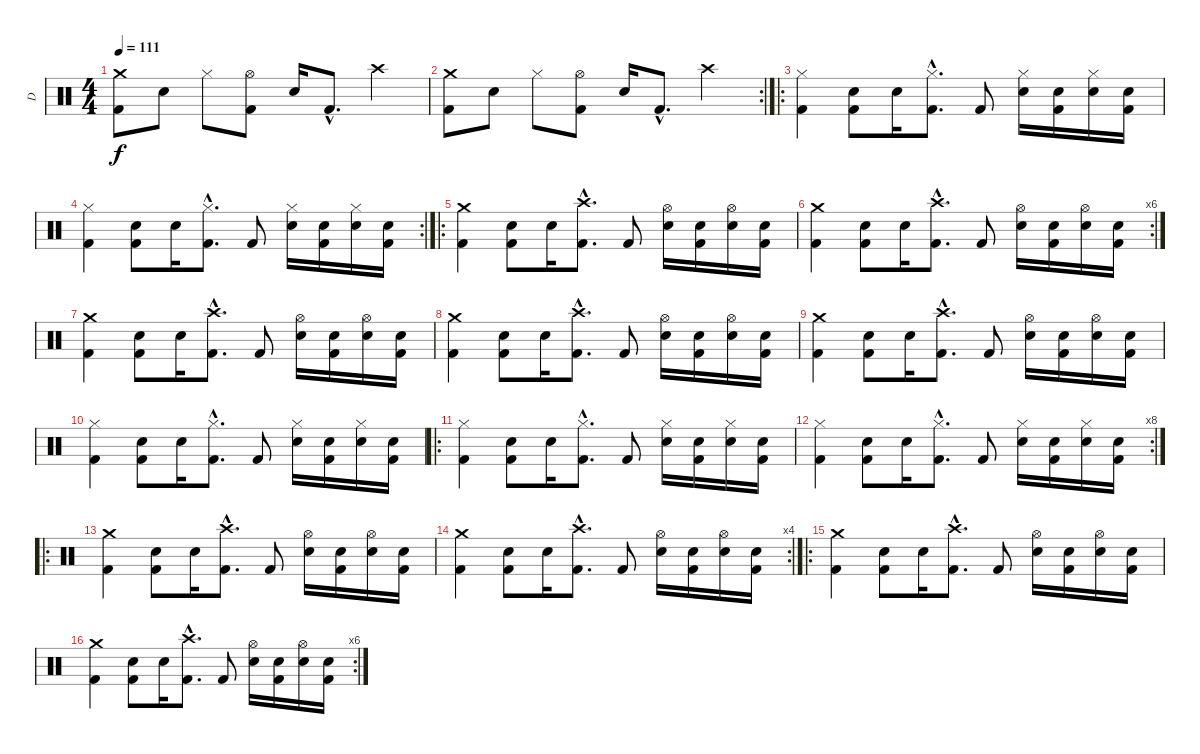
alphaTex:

\track ("D" "D") {instrument percussion}
\staff {score}
\articulation defaults
\ts (4 4)
\tempo 111
\clef neutral
\ks c
("Crash medium (hit)" "Kick (hit) 2").8{dy f} "Electric Snare (hit)".8 "Hi-Hat (closed)".8 ("Hi-Hat (open)" "Kick (hit) 2").8 "Electric Snare (hit)".16 "Kick (hit) 2"{hac}.8{d} "Crash high (hit)".4 |
\rc 2
("Crash medium (hit)" "Kick (hit) 2").8 "Electric Snare (hit)".8 "Hi-Hat (closed)".8 ("Hi-Hat (open)" "Kick (hit) 2").8 "Electric Snare (hit)".16 "Kick (hit) 2"{hac}.8{d} "Crash high (hit)".4 |
\ro
("Hi-Hat (closed)" "Kick (hit) 2").4 ("Electric Snare (hit)" "Kick (hit) 2").8 "Electric Snare (hit)".16 ("Hi-Hat (closed)"{hac} "Kick (hit) 2"{hac}).8{d} "Kick (hit) 2".8 ("Hi-Hat (closed)" "Electric Snare (hit)").16 ("Electric Snare (hit)" "Kick (hit) 2").16 ("Hi-Hat (closed)" "Electric Snare (hit)").16 ("Electric Snare (hit)" "Kick (hit) 2").16 |
\rc 2
("Hi-Hat (closed)" "Kick (hit) 2").4 ("Electric Snare (hit)" "Kick (hit) 2").8 "Electric Snare (hit)".16 ("Hi-Hat (closed)"{hac} "Kick (hit) 2"{hac}).8{d} "Kick (hit) 2".8 ("Hi-Hat (closed)" "Electric Snare (hit)").16 ("Electric Snare (hit)" "Kick (hit) 2").16 ("Hi-Hat (closed)" "Electric Snare (hit)").16 ("Electric Snare (hit)" "Kick (hit) 2").16 |
\ro
("Crash medium (hit)" "Kick (hit) 2").4 ("Electric Snare (hit)" "Kick (hit) 2").8 "Electric Snare (hit)".16 ("Crash high (hit)"{hac} "Kick (hit) 2"{hac}).8{d} "Kick (hit) 2".8 ("Hi-Hat (open)" "Electric Snare (hit)").16 ("Electric Snare (hit)" "Kick (hit) 2").16 ("Hi-Hat (open)" "Electric Snare (hit)").16 ("Electric Snare (hit)" "Kick (hit) 2").16 |
\rc 6
("Crash medium (hit)" "Kick (hit) 2").4 ("Electric Snare (hit)" "Kick (hit) 2").8 "Electric Snare (hit)".16 ("Crash high (hit)"{hac} "Kick (hit) 2"{hac}).8{d} "Kick (hit) 2".8 ("Hi-Hat (open)" "Electric Snare (hit)").16 ("Electric Snare (hit)" "Kick (hit) 2").16 ("Hi-Hat (open)" "Electric Snare (hit)").16 ("Electric Snare (hit)" "Kick (hit) 2").16 |
("Crash medium (hit)" "Kick (hit) 2").4 ("Electric Snare (hit)" "Kick (hit) 2").8 "Electric Snare (hit)".16 ("Crash high (hit)"{hac} "Kick (hit) 2"{hac}).8{d} "Kick (hit) 2".8 ("Hi-Hat (open)" "Electric Snare (hit)").16 ("Electric Snare (hit)" "Kick (hit) 2").16 ("Hi-Hat (open)" "Electric Snare (hit)").16 ("Electric Snare (hit)" "Kick (hit) 2").16 |
("Crash medium (hit)" "Kick (hit) 2").4 ("Electric Snare (hit)" "Kick (hit) 2").8 "Electric Snare (hit)".16 ("Crash high (hit)"{hac} "Kick (hit) 2"{hac}).8{d} "Kick (hit) 2".8 ("Hi-Hat (open)" "Electric Snare (hit)").16 ("Electric Snare (hit)" "Kick (hit) 2").16 ("Hi-Hat (open)" "Electric Snare (hit)").16 ("Electric Snare (hit)" "Kick (hit) 2").16 |
("Crash medium (hit)" "Kick (hit) 2").4 ("Electric Snare (hit)" "Kick (hit) 2").8 "Electric Snare (hit)".16 ("Crash high (hit)"{hac} "Kick (hit) 2"{hac}).8{d} "Kick (hit) 2".8 ("Hi-Hat (open)" "Electric Snare (hit)").16 ("Electric Snare (hit)" "Kick (hit) 2").16 ("Hi-Hat (open)" "Electric Snare (hit)").16 ("Electric Snare (hit)" "Kick (hit) 2").16 |
("Hi-Hat (closed)" "Kick (hit) 2").4 ("Electric Snare (hit)" "Kick (hit) 2").8 "Electric Snare (hit)".16 ("Hi-Hat (closed)"{hac} "Kick (hit) 2"{hac}).8{d} "Kick (hit) 2".8 ("Hi-Hat (closed)" "Electric Snare (hit)").16 ("Electric Snare (hit)" "Kick (hit) 2").16 ("Hi-Hat (closed)" "Electric Snare (hit)").16 ("Electric Snare (hit)" "Kick (hit) 2").16 |
\ro
("Hi-Hat (closed)" "Kick (hit) 2").4 ("Electric Snare (hit)" "Kick (hit) 2").8 "Electric Snare (hit)".16 ("Hi-Hat (closed)"{hac} "Kick (hit) 2"{hac}).8{d} "Kick (hit) 2".8 ("Hi-Hat (closed)" "Electric Snare (hit)").16 ("Electric Snare (hit)" "Kick (hit) 2").16 ("Hi-Hat (closed)" "Electric Snare (hit)").16 ("Electric Snare (hit)" "Kick (hit) 2").16 |
\rc 8
("Hi-Hat (closed)" "Kick (hit) 2").4 ("Electric Snare (hit)" "Kick (hit) 2").8 "Electric Snare (hit)".16 ("Hi-Hat (closed)"{hac} "Kick (hit) 2"{hac}).8{d} "Kick (hit) 2".8 ("Hi-Hat (closed)" "Electric Snare (hit)").16 ("Electric Snare (hit)" "Kick (hit) 2").16 ("Hi-Hat (closed)" "Electric Snare (hit)").16 ("Electric Snare (hit)" "Kick (hit) 2").16 |
\ro
("Crash medium (hit)" "Kick (hit) 2").4 ("Electric Snare (hit)" "Kick (hit) 2").8 "Electric Snare (hit)".16 ("Crash high (hit)"{hac} "Kick (hit) 2"{hac}).8{d} "Kick (hit) 2".8 ("Hi-Hat (open)" "Electric Snare (hit)").16 ("Electric Snare (hit)" "Kick (hit) 2").16 ("Hi-Hat (open)" "Electric Snare (hit)").16 ("Electric Snare (hit)" "Kick (hit) 2").16 |
\rc 4
("Crash medium (hit)" "Kick (hit) 2").4 ("Electric Snare (hit)" "Kick (hit) 2").8 "Electric Snare (hit)".16 ("Crash high (hit)"{hac} "Kick (hit) 2"{hac}).8{d} "Kick (hit) 2".8 ("Hi-Hat (open)" "Electric Snare (hit)").16 ("Electric Snare (hit)" "Kick (hit) 2").16 ("Hi-Hat (open)" "Electric Snare (hit)").16 ("Electric Snare (hit)" "Kick (hit) 2").16 |
\ro
("Crash medium (hit)" "Kick (hit) 2").4 ("Electric Snare (hit)" "Kick (hit) 2").8 "Electric Snare (hit)".16 ("Crash high (hit)"{hac} "Kick (hit) 2"{hac}).8{d} "Kick (hit) 2".8 ("Hi-Hat (open)" "Electric Snare (hit)").16 ("Electric Snare (hit)" "Kick (hit) 2").16 ("Hi-Hat (open)" "Electric Snare (hit)").16 ("Electric Snare (hit)" "Kick (hit) 2").16 |
\rc 6
("Crash medium (hit)" "Kick (hit) 2").4 ("Electric Snare (hit)" "Kick (hit) 2").8 "Electric Snare (hit)".16 ("Crash high (hit)"{hac} "Kick (hit) 2"{hac}).8{d} "Kick (hit) 2".8 ("Hi-Hat (open)" "Electric Snare (hit)").16 ("Electric Snare (hit)" "Kick (hit) 2").16 ("Hi-Hat (open)" "Electric Snare (hit)").16 ("Electric Snare (hit)" "Kick (hit) 2").16
